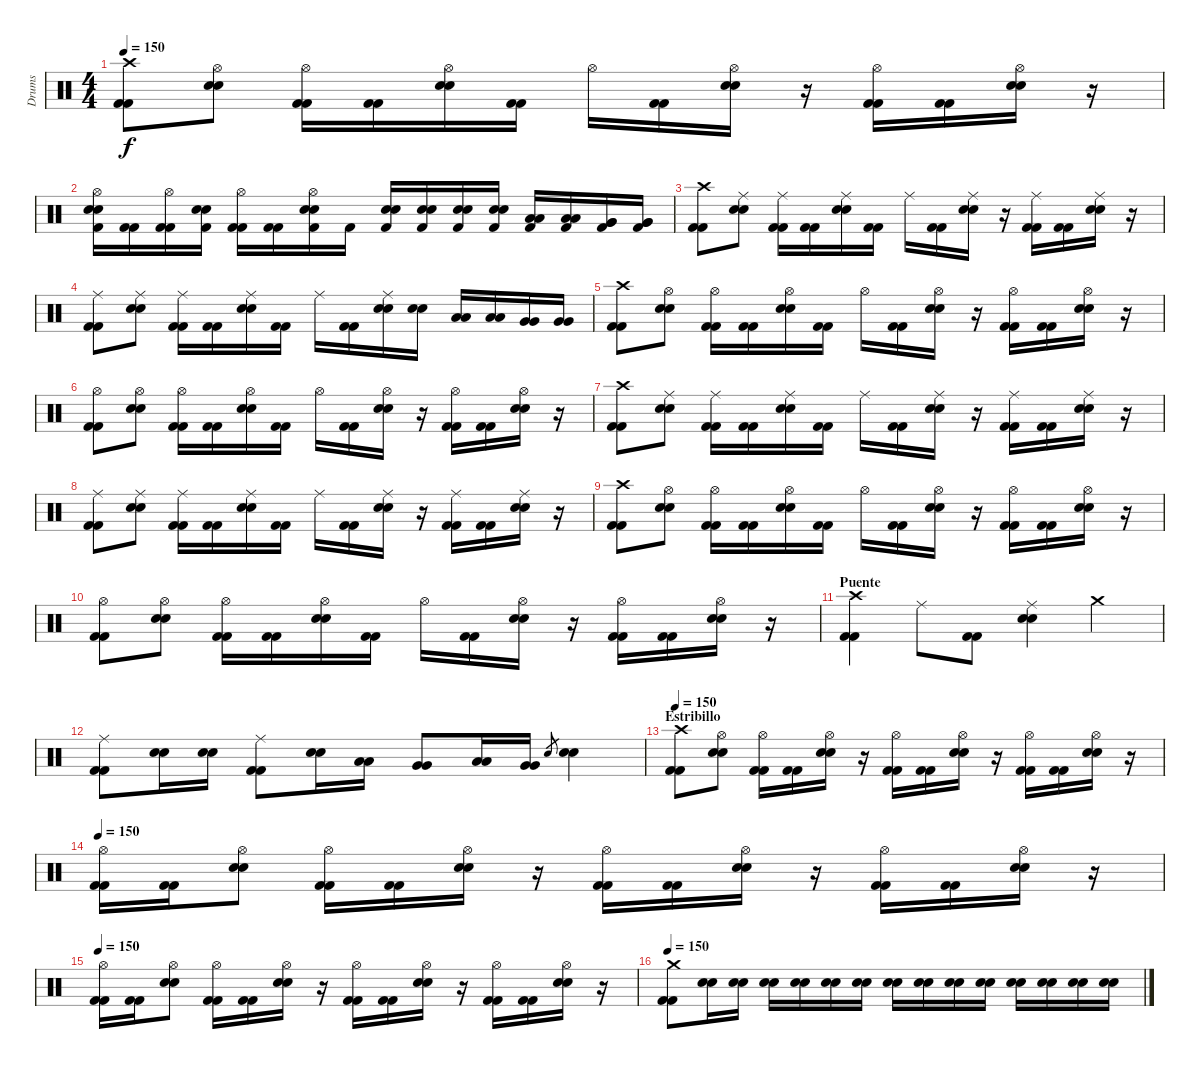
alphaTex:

\track ("Drums" "Drums") {instrument percussion}
\staff {score}
\articulation defaults
\ts (4 4)
\tempo 150
\clef neutral
\ks c
("Crash high (hit)" "Kick (hit) 2" "Kick (hit) 2").8{dy f} ("Hi-Hat (open)" "Snare (hit) 2" "Snare (hit) 2").8 ("Hi-Hat (open)" "Kick (hit) 2" "Kick (hit) 2").16 ("Kick (hit) 2" "Kick (hit) 2").16 ("Hi-Hat (open)" "Snare (hit) 2" "Snare (hit) 2").16 ("Kick (hit) 2" "Kick (hit) 2").16 "Hi-Hat (open)".16 ("Kick (hit) 2" "Kick (hit) 2").16 ("Hi-Hat (open)" "Snare (hit) 2" "Snare (hit) 2").16 r.16 ("Hi-Hat (open)" "Kick (hit) 2" "Kick (hit) 2").16 ("Kick (hit) 2" "Kick (hit) 2").16 ("Hi-Hat (open)" "Snare (hit) 2" "Snare (hit) 2").16 r.16 |
("Hi-Hat (open)" "Snare (hit) 2" "Snare (hit) 2" "Kick (hit) 2").16 ("Kick (hit) 2" "Kick (hit) 2").16 ("Hi-Hat (open)" "Kick (hit) 2" "Kick (hit) 2").16 ("Snare (hit) 2" "Snare (hit) 2" "Kick (hit) 2").16 ("Hi-Hat (open)" "Kick (hit) 2" "Kick (hit) 2").16 ("Kick (hit) 2" "Kick (hit) 2").16 ("Hi-Hat (open)" "Snare (hit) 2" "Snare (hit) 2" "Kick (hit) 2").16 "Kick (hit) 2".16 ("Snare (hit) 2" "Snare (hit) 2" "Kick (hit) 2").16 ("Snare (hit) 2" "Snare (hit) 2" "Kick (hit) 2").16 ("Snare (hit) 2" "Snare (hit) 2" "Kick (hit) 2").16 ("Snare (hit) 2" "Snare (hit) 2" "Kick (hit) 2").16 ("Low Tom (hit)" "Low Tom (hit)" "Kick (hit) 2").16 ("Low Tom (hit)" "Low Tom (hit)" "Kick (hit) 2").16 ("Very Low Tom (hit)" "Very Low Tom (hit)" "Kick (hit) 2").16 ("Very Low Tom (hit)" "Very Low Tom (hit)" "Kick (hit) 2").16 |
("Crash high (hit)" "Kick (hit) 2" "Kick (hit) 2").8 ("Ride (middle)" "Snare (hit) 2" "Snare (hit) 2").8 ("Ride (middle)" "Kick (hit) 2" "Kick (hit) 2").16 ("Kick (hit) 2" "Kick (hit) 2").16 ("Ride (middle)" "Snare (hit) 2" "Snare (hit) 2").16 ("Kick (hit) 2" "Kick (hit) 2").16 "Ride (middle)".16 ("Kick (hit) 2" "Kick (hit) 2").16 ("Ride (middle)" "Snare (hit) 2" "Snare (hit) 2").16 r.16 ("Ride (middle)" "Kick (hit) 2" "Kick (hit) 2").16 ("Kick (hit) 2" "Kick (hit) 2").16 ("Ride (middle)" "Snare (hit) 2" "Snare (hit) 2").16 r.16 |
("Ride (middle)" "Kick (hit) 2" "Kick (hit) 2").8 ("Ride (middle)" "Snare (hit) 2" "Snare (hit) 2").8 ("Ride (middle)" "Kick (hit) 2" "Kick (hit) 2").16 ("Kick (hit) 2" "Kick (hit) 2").16 ("Ride (middle)" "Snare (hit) 2" "Snare (hit) 2").16 ("Kick (hit) 2" "Kick (hit) 2").16 "Ride (middle)".16 ("Kick (hit) 2" "Kick (hit) 2").16 ("Ride (middle)" "Snare (hit) 2" "Snare (hit) 2").16 ("Snare (hit) 2" "Snare (hit) 2").16 ("Low Tom (hit)" "Low Tom (hit)").16 ("Low Tom (hit)" "Low Tom (hit)").16 ("Very Low Tom (hit)" "Very Low Tom (hit)").16 ("Very Low Tom (hit)" "Very Low Tom (hit)").16 |
("Crash high (hit)" "Kick (hit) 2" "Kick (hit) 2").8 ("Hi-Hat (open)" "Snare (hit) 2" "Snare (hit) 2").8 ("Hi-Hat (open)" "Kick (hit) 2" "Kick (hit) 2").16 ("Kick (hit) 2" "Kick (hit) 2").16 ("Hi-Hat (open)" "Snare (hit) 2" "Snare (hit) 2").16 ("Kick (hit) 2" "Kick (hit) 2").16 "Hi-Hat (open)".16 ("Kick (hit) 2" "Kick (hit) 2").16 ("Hi-Hat (open)" "Snare (hit) 2" "Snare (hit) 2").16 r.16 ("Hi-Hat (open)" "Kick (hit) 2" "Kick (hit) 2").16 ("Kick (hit) 2" "Kick (hit) 2").16 ("Hi-Hat (open)" "Snare (hit) 2" "Snare (hit) 2").16 r.16 |
("Hi-Hat (open)" "Kick (hit) 2" "Kick (hit) 2").8 ("Hi-Hat (open)" "Snare (hit) 2" "Snare (hit) 2").8 ("Hi-Hat (open)" "Kick (hit) 2" "Kick (hit) 2").16 ("Kick (hit) 2" "Kick (hit) 2").16 ("Hi-Hat (open)" "Snare (hit) 2" "Snare (hit) 2").16 ("Kick (hit) 2" "Kick (hit) 2").16 "Hi-Hat (open)".16 ("Kick (hit) 2" "Kick (hit) 2").16 ("Hi-Hat (open)" "Snare (hit) 2" "Snare (hit) 2").16 r.16 ("Hi-Hat (open)" "Kick (hit) 2" "Kick (hit) 2").16 ("Kick (hit) 2" "Kick (hit) 2").16 ("Hi-Hat (open)" "Snare (hit) 2" "Snare (hit) 2").16 r.16 |
("Crash high (hit)" "Kick (hit) 2" "Kick (hit) 2").8 ("Ride (middle)" "Snare (hit) 2" "Snare (hit) 2").8 ("Ride (middle)" "Kick (hit) 2" "Kick (hit) 2").16 ("Kick (hit) 2" "Kick (hit) 2").16 ("Ride (middle)" "Snare (hit) 2" "Snare (hit) 2").16 ("Kick (hit) 2" "Kick (hit) 2").16 "Ride (middle)".16 ("Kick (hit) 2" "Kick (hit) 2").16 ("Ride (middle)" "Snare (hit) 2" "Snare (hit) 2").16 r.16 ("Ride (middle)" "Kick (hit) 2" "Kick (hit) 2").16 ("Kick (hit) 2" "Kick (hit) 2").16 ("Ride (middle)" "Snare (hit) 2" "Snare (hit) 2").16 r.16 |
("Ride (middle)" "Kick (hit) 2" "Kick (hit) 2").8 ("Ride (middle)" "Snare (hit) 2" "Snare (hit) 2").8 ("Ride (middle)" "Kick (hit) 2" "Kick (hit) 2").16 ("Kick (hit) 2" "Kick (hit) 2").16 ("Ride (middle)" "Snare (hit) 2" "Snare (hit) 2").16 ("Kick (hit) 2" "Kick (hit) 2").16 "Ride (middle)".16 ("Kick (hit) 2" "Kick (hit) 2").16 ("Ride (middle)" "Snare (hit) 2" "Snare (hit) 2").16 r.16 ("Ride (middle)" "Kick (hit) 2" "Kick (hit) 2").16 ("Kick (hit) 2" "Kick (hit) 2").16 ("Ride (middle)" "Snare (hit) 2" "Snare (hit) 2").16 r.16 |
("Crash high (hit)" "Kick (hit) 2" "Kick (hit) 2").8 ("Hi-Hat (open)" "Snare (hit) 2" "Snare (hit) 2").8 ("Hi-Hat (open)" "Kick (hit) 2" "Kick (hit) 2").16 ("Kick (hit) 2" "Kick (hit) 2").16 ("Hi-Hat (open)" "Snare (hit) 2" "Snare (hit) 2").16 ("Kick (hit) 2" "Kick (hit) 2").16 "Hi-Hat (open)".16 ("Kick (hit) 2" "Kick (hit) 2").16 ("Hi-Hat (open)" "Snare (hit) 2" "Snare (hit) 2").16 r.16 ("Hi-Hat (open)" "Kick (hit) 2" "Kick (hit) 2").16 ("Kick (hit) 2" "Kick (hit) 2").16 ("Hi-Hat (open)" "Snare (hit) 2" "Snare (hit) 2").16 r.16 |
("Hi-Hat (open)" "Kick (hit) 2" "Kick (hit) 2").8 ("Hi-Hat (open)" "Snare (hit) 2" "Snare (hit) 2").8 ("Hi-Hat (open)" "Kick (hit) 2" "Kick (hit) 2").16 ("Kick (hit) 2" "Kick (hit) 2").16 ("Hi-Hat (open)" "Snare (hit) 2" "Snare (hit) 2").16 ("Kick (hit) 2" "Kick (hit) 2").16 "Hi-Hat (open)".16 ("Kick (hit) 2" "Kick (hit) 2").16 ("Hi-Hat (open)" "Snare (hit) 2" "Snare (hit) 2").16 r.16 ("Hi-Hat (open)" "Kick (hit) 2" "Kick (hit) 2").16 ("Kick (hit) 2" "Kick (hit) 2").16 ("Hi-Hat (open)" "Snare (hit) 2" "Snare (hit) 2").16 r.16 |
\section ("" "Puente")
("Crash high (hit)" "Kick (hit) 2" "Kick (hit) 2").4 "Ride (middle)".8 ("Kick (hit) 2" "Kick (hit) 2").8 ("Ride (middle)" "Snare (hit) 2" "Snare (hit) 2").4 "Crash medium (hit)".4 |
("Ride (middle)" "Kick (hit) 2" "Kick (hit) 2").8 ("Snare (hit) 2" "Snare (hit) 2").16 ("Snare (hit) 2" "Snare (hit) 2").16 ("Ride (middle)" "Kick (hit) 2" "Kick (hit) 2").8 ("Snare (hit) 2" "Snare (hit) 2").16 ("Low Tom (hit)" "Low Tom (hit)").16 ("Very Low Tom (hit)" "Very Low Tom (hit)").8 ("Low Tom (hit)" "Low Tom (hit)").16 ("Very Low Tom (hit)" "Very Low Tom (hit)").16 "Snare (hit) 2".8{gr} ("Snare (hit) 2" "Snare (hit) 2").4 |
\section ("" "Estribillo")
\tempo 150
("Crash high (hit)" "Kick (hit) 2" "Kick (hit) 2").8 ("Hi-Hat (open)" "Snare (hit) 2" "Snare (hit) 2").8 ("Hi-Hat (open)" "Kick (hit) 2" "Kick (hit) 2").16 ("Kick (hit) 2" "Kick (hit) 2").16 ("Hi-Hat (open)" "Snare (hit) 2" "Snare (hit) 2").16 r.16 ("Hi-Hat (open)" "Kick (hit) 2" "Kick (hit) 2").16 ("Kick (hit) 2" "Kick (hit) 2").16 ("Hi-Hat (open)" "Snare (hit) 2" "Snare (hit) 2").16 r.16 ("Hi-Hat (open)" "Kick (hit) 2" "Kick (hit) 2").16 ("Kick (hit) 2" "Kick (hit) 2").16 ("Hi-Hat (open)" "Snare (hit) 2" "Snare (hit) 2").16 r.16 |
\tempo 150
("Hi-Hat (open)" "Kick (hit) 2" "Kick (hit) 2").16 ("Kick (hit) 2" "Kick (hit) 2").16 ("Hi-Hat (open)" "Snare (hit) 2" "Snare (hit) 2").8 ("Hi-Hat (open)" "Kick (hit) 2" "Kick (hit) 2").16 ("Kick (hit) 2" "Kick (hit) 2").16 ("Hi-Hat (open)" "Snare (hit) 2" "Snare (hit) 2").16 r.16 ("Hi-Hat (open)" "Kick (hit) 2" "Kick (hit) 2").16 ("Kick (hit) 2" "Kick (hit) 2").16 ("Hi-Hat (open)" "Snare (hit) 2" "Snare (hit) 2").16 r.16 ("Hi-Hat (open)" "Kick (hit) 2" "Kick (hit) 2").16 ("Kick (hit) 2" "Kick (hit) 2").16 ("Hi-Hat (open)" "Snare (hit) 2" "Snare (hit) 2").16 r.16 |
\tempo 150
("Hi-Hat (open)" "Kick (hit) 2" "Kick (hit) 2").16 ("Kick (hit) 2" "Kick (hit) 2").16 ("Hi-Hat (open)" "Snare (hit) 2" "Snare (hit) 2").8 ("Hi-Hat (open)" "Kick (hit) 2" "Kick (hit) 2").16 ("Kick (hit) 2" "Kick (hit) 2").16 ("Hi-Hat (open)" "Snare (hit) 2" "Snare (hit) 2").16 r.16 ("Hi-Hat (open)" "Kick (hit) 2" "Kick (hit) 2").16 ("Kick (hit) 2" "Kick (hit) 2").16 ("Hi-Hat (open)" "Snare (hit) 2" "Snare (hit) 2").16 r.16 ("Hi-Hat (open)" "Kick (hit) 2" "Kick (hit) 2").16 ("Kick (hit) 2" "Kick (hit) 2").16 ("Hi-Hat (open)" "Snare (hit) 2" "Snare (hit) 2").16 r.16 |
\tempo 150
("Crash medium (hit)" "Kick (hit) 2" "Kick (hit) 2").8 ("Snare (hit) 2" "Snare (hit) 2").16 ("Snare (hit) 2" "Snare (hit) 2").16 ("Snare (hit) 2" "Snare (hit) 2").16 ("Snare (hit) 2" "Snare (hit) 2").16 ("Snare (hit) 2" "Snare (hit) 2").16 ("Snare (hit) 2" "Snare (hit) 2").16 ("Snare (hit) 2" "Snare (hit) 2").16 ("Snare (hit) 2" "Snare (hit) 2").16 ("Snare (hit) 2" "Snare (hit) 2").16 ("Snare (hit) 2" "Snare (hit) 2").16 ("Snare (hit) 2" "Snare (hit) 2").16 ("Snare (hit) 2" "Snare (hit) 2").16 ("Snare (hit) 2" "Snare (hit) 2").16 ("Snare (hit) 2" "Snare (hit) 2").16
